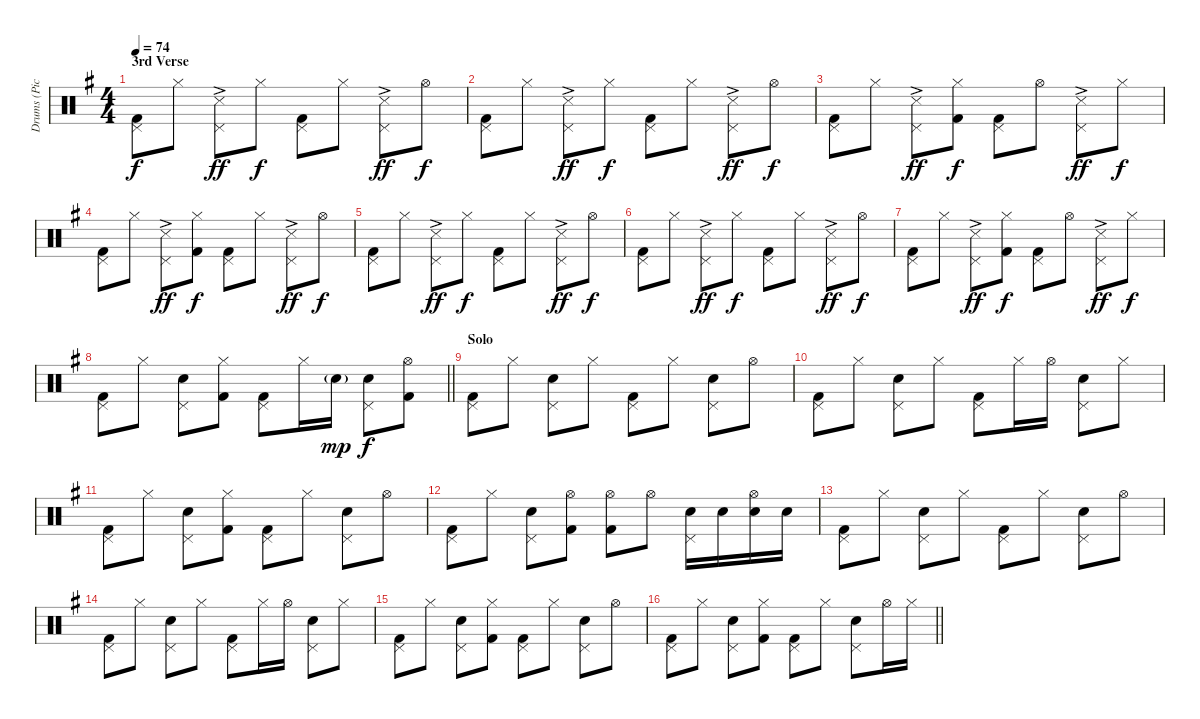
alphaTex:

\track ("Drums (Pick)" "Drums (Pic") {instrument percussion}
\staff {score}
\articulation defaults
\ts (4 4)
\section ("" "3rd Verse")
\tempo 74
\clef neutral
\ks g
("Kick (hit) 2" "Pedal Hi-Hat (hit)").8{dy f} "Hi-Hat (closed)".8 ("Snare (side stick) 3"{ac} "Pedal Hi-Hat (hit)").8{dy ff} "Hi-Hat (closed)".8{dy f} ("Kick (hit) 2" "Pedal Hi-Hat (hit)").8 "Hi-Hat (closed)".8 ("Snare (side stick) 3"{ac} "Pedal Hi-Hat (hit)").8{dy ff} "Hi-Hat (open)".8{dy f} |
("Kick (hit) 2" "Pedal Hi-Hat (hit)").8 "Hi-Hat (closed)".8 ("Snare (side stick) 3"{ac} "Pedal Hi-Hat (hit)").8{dy ff} "Hi-Hat (closed)".8{dy f} ("Kick (hit) 2" "Pedal Hi-Hat (hit)").8 "Hi-Hat (closed)".8 ("Snare (side stick) 3"{ac} "Pedal Hi-Hat (hit)").8{dy ff} "Hi-Hat (open)".8{dy f} |
("Kick (hit) 2" "Pedal Hi-Hat (hit)").8 "Hi-Hat (closed)".8 ("Snare (side stick) 3"{ac} "Pedal Hi-Hat (hit)").8{dy ff} ("Hi-Hat (closed)" "Kick (hit) 2").8{dy f} ("Kick (hit) 2" "Pedal Hi-Hat (hit)").8 "Hi-Hat (open)".8 ("Snare (side stick) 3"{ac} "Pedal Hi-Hat (hit)").8{dy ff} "Hi-Hat (closed)".8{dy f} |
("Kick (hit) 2" "Pedal Hi-Hat (hit)").8 "Hi-Hat (closed)".8 ("Snare (side stick) 3"{ac} "Pedal Hi-Hat (hit)").8{dy ff} ("Hi-Hat (closed)" "Kick (hit) 2").8{dy f} ("Kick (hit) 2" "Pedal Hi-Hat (hit)").8 "Hi-Hat (closed)".8 ("Snare (side stick) 3"{ac} "Pedal Hi-Hat (hit)").8{dy ff} "Hi-Hat (open)".8{dy f} |
("Kick (hit) 2" "Pedal Hi-Hat (hit)").8 "Hi-Hat (closed)".8 ("Snare (side stick) 3"{ac} "Pedal Hi-Hat (hit)").8{dy ff} "Hi-Hat (closed)".8{dy f} ("Kick (hit) 2" "Pedal Hi-Hat (hit)").8 "Hi-Hat (closed)".8 ("Snare (side stick) 3"{ac} "Pedal Hi-Hat (hit)").8{dy ff} "Hi-Hat (open)".8{dy f} |
("Kick (hit) 2" "Pedal Hi-Hat (hit)").8 "Hi-Hat (closed)".8 ("Snare (side stick) 3"{ac} "Pedal Hi-Hat (hit)").8{dy ff} "Hi-Hat (closed)".8{dy f} ("Kick (hit) 2" "Pedal Hi-Hat (hit)").8 "Hi-Hat (closed)".8 ("Snare (side stick) 3"{ac} "Pedal Hi-Hat (hit)").8{dy ff} "Hi-Hat (open)".8{dy f} |
("Kick (hit) 2" "Pedal Hi-Hat (hit)").8 "Hi-Hat (closed)".8 ("Snare (side stick) 3"{ac} "Pedal Hi-Hat (hit)").8{dy ff} ("Hi-Hat (closed)" "Kick (hit) 2").8{dy f} ("Kick (hit) 2" "Pedal Hi-Hat (hit)").8 "Hi-Hat (open)".8 ("Snare (side stick) 3"{ac} "Pedal Hi-Hat (hit)").8{dy ff} "Hi-Hat (closed)".8{dy f} |
\barLineRight lightlight
("Kick (hit) 2" "Pedal Hi-Hat (hit)").8 "Hi-Hat (closed)".8 ("Snare (hit) 2" "Pedal Hi-Hat (hit)").8 ("Hi-Hat (closed)" "Kick (hit) 2").8 ("Kick (hit) 2" "Pedal Hi-Hat (hit)").8 "Hi-Hat (closed)".16 "Snare (hit) 2"{g}.16{dy mp} ("Snare (hit) 2" "Pedal Hi-Hat (hit)").8{dy f} ("Hi-Hat (open)" "Kick (hit) 2").8 |
\section ("" "Solo")
("Kick (hit) 2" "Pedal Hi-Hat (hit)").8 "Hi-Hat (closed)".8 ("Snare (hit) 2" "Pedal Hi-Hat (hit)").8 "Hi-Hat (closed)".8 ("Kick (hit) 2" "Pedal Hi-Hat (hit)").8 "Hi-Hat (closed)".8 ("Snare (hit) 2" "Pedal Hi-Hat (hit)").8 "Hi-Hat (open)".8 |
("Kick (hit) 2" "Pedal Hi-Hat (hit)").8 "Hi-Hat (closed)".8 ("Snare (hit) 2" "Pedal Hi-Hat (hit)").8 "Hi-Hat (closed)".8 ("Kick (hit) 2" "Pedal Hi-Hat (hit)").8 "Hi-Hat (closed)".16 "Hi-Hat (open)".16 ("Snare (hit) 2" "Pedal Hi-Hat (hit)").8 "Hi-Hat (closed)".8 |
("Kick (hit) 2" "Pedal Hi-Hat (hit)").8 "Hi-Hat (closed)".8 ("Snare (hit) 2" "Pedal Hi-Hat (hit)").8 ("Hi-Hat (closed)" "Kick (hit) 2").8 ("Kick (hit) 2" "Pedal Hi-Hat (hit)").8 "Hi-Hat (closed)".8 ("Snare (hit) 2" "Pedal Hi-Hat (hit)").8 "Hi-Hat (open)".8 |
("Kick (hit) 2" "Pedal Hi-Hat (hit)").8 "Hi-Hat (closed)".8 ("Snare (hit) 2" "Pedal Hi-Hat (hit)").8 ("Hi-Hat (open)" "Kick (hit) 2").8 ("Hi-Hat (open)" "Kick (hit) 2").8 "Hi-Hat (open)".8 ("Snare (hit) 2" "Pedal Hi-Hat (hit)").16 "Snare (hit) 2".16 ("Hi-Hat (open)" "Snare (hit) 2").16 "Snare (hit) 2".16 |
("Kick (hit) 2" "Pedal Hi-Hat (hit)").8 "Hi-Hat (closed)".8 ("Snare (hit) 2" "Pedal Hi-Hat (hit)").8 "Hi-Hat (closed)".8 ("Kick (hit) 2" "Pedal Hi-Hat (hit)").8 "Hi-Hat (closed)".8 ("Snare (hit) 2" "Pedal Hi-Hat (hit)").8 "Hi-Hat (open)".8 |
("Kick (hit) 2" "Pedal Hi-Hat (hit)").8 "Hi-Hat (closed)".8 ("Snare (hit) 2" "Pedal Hi-Hat (hit)").8 "Hi-Hat (closed)".8 ("Kick (hit) 2" "Pedal Hi-Hat (hit)").8 "Hi-Hat (closed)".16 "Hi-Hat (open)".16 ("Snare (hit) 2" "Pedal Hi-Hat (hit)").8 "Hi-Hat (closed)".8 |
("Kick (hit) 2" "Pedal Hi-Hat (hit)").8 "Hi-Hat (closed)".8 ("Snare (hit) 2" "Pedal Hi-Hat (hit)").8 ("Hi-Hat (closed)" "Kick (hit) 2").8 ("Kick (hit) 2" "Pedal Hi-Hat (hit)").8 "Hi-Hat (closed)".8 ("Snare (hit) 2" "Pedal Hi-Hat (hit)").8 "Hi-Hat (open)".8 |
\barLineRight lightlight
("Kick (hit) 2" "Pedal Hi-Hat (hit)").8 "Hi-Hat (closed)".8 ("Snare (hit) 2" "Pedal Hi-Hat (hit)").8 ("Hi-Hat (closed)" "Kick (hit) 2").8 ("Kick (hit) 2" "Pedal Hi-Hat (hit)").8 "Hi-Hat (closed)".8 ("Snare (hit) 2" "Pedal Hi-Hat (hit)").8 "Hi-Hat (open)".16 "Hi-Hat (closed)".16
